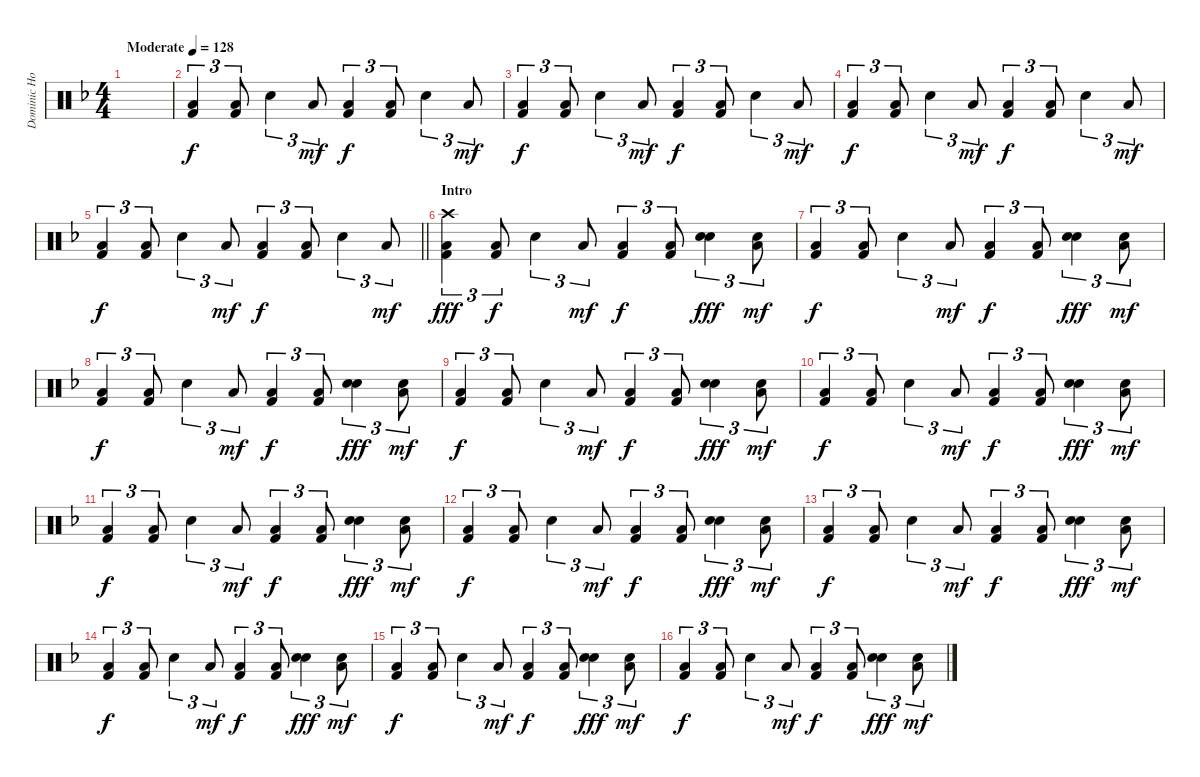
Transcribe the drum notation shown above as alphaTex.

\track ("Dominic Howard Drums" "Dominic Ho") {instrument percussion}
\staff {score}
\articulation defaults
\ts (4 4)
\tempo (128 "Moderate")
\clef neutral
\ks dminor
|
("Low Floor Tom (hit)" "Kick (hit) 2").4{tu (3 2)} ("Low Floor Tom (hit)" "Kick (hit) 2").8{tu (3 2)} "Snare (hit) 2".4{tu (3 2)} "Low Tom (hit)".8{tu (3 2) dy mf} ("Low Floor Tom (hit)" "Kick (hit) 2").4{tu (3 2) dy f} ("Low Floor Tom (hit)" "Kick (hit) 2").8{tu (3 2)} "Snare (hit) 2".4{tu (3 2)} "Low Tom (hit)".8{tu (3 2) dy mf} |
("Low Floor Tom (hit)" "Kick (hit) 2").4{tu (3 2) dy f} ("Low Floor Tom (hit)" "Kick (hit) 2").8{tu (3 2)} "Snare (hit) 2".4{tu (3 2)} "Low Tom (hit)".8{tu (3 2) dy mf} ("Low Floor Tom (hit)" "Kick (hit) 2").4{tu (3 2) dy f} ("Low Floor Tom (hit)" "Kick (hit) 2").8{tu (3 2)} "Snare (hit) 2".4{tu (3 2)} "Low Tom (hit)".8{tu (3 2) dy mf} |
("Low Floor Tom (hit)" "Kick (hit) 2").4{tu (3 2) dy f} ("Low Floor Tom (hit)" "Kick (hit) 2").8{tu (3 2)} "Snare (hit) 2".4{tu (3 2)} "Low Tom (hit)".8{tu (3 2) dy mf} ("Low Floor Tom (hit)" "Kick (hit) 2").4{tu (3 2) dy f} ("Low Floor Tom (hit)" "Kick (hit) 2").8{tu (3 2)} "Snare (hit) 2".4{tu (3 2)} "Low Tom (hit)".8{tu (3 2) dy mf} |
\barLineRight lightlight
("Low Floor Tom (hit)" "Kick (hit) 2").4{tu (3 2) dy f} ("Low Floor Tom (hit)" "Kick (hit) 2").8{tu (3 2)} "Snare (hit) 2".4{tu (3 2)} "Low Tom (hit)".8{tu (3 2) dy mf} ("Low Floor Tom (hit)" "Kick (hit) 2").4{tu (3 2) dy f} ("Low Floor Tom (hit)" "Kick (hit) 2").8{tu (3 2)} "Snare (hit) 2".4{tu (3 2)} "Low Tom (hit)".8{tu (3 2) dy mf} |
\section ("" "Intro")
("Crash high (hit)" "Low Floor Tom (hit)" "Kick (hit) 2").4{tu (3 2) dy fff} ("Low Floor Tom (hit)" "Kick (hit) 2").8{tu (3 2) dy f} "Snare (hit) 2".4{tu (3 2)} "Low Tom (hit)".8{tu (3 2) dy mf} ("Low Floor Tom (hit)" "Kick (hit) 2").4{tu (3 2) dy f} ("Low Floor Tom (hit)" "Kick (hit) 2").8{tu (3 2)} ("Hand Clap (hit)" "Snare (hit) 2").4{tu (3 2) dy fff} ("Hand Clap (hit)" "Low Tom (hit)").8{tu (3 2) dy mf} |
("Low Floor Tom (hit)" "Kick (hit) 2").4{tu (3 2) dy f} ("Low Floor Tom (hit)" "Kick (hit) 2").8{tu (3 2)} "Snare (hit) 2".4{tu (3 2)} "Low Tom (hit)".8{tu (3 2) dy mf} ("Low Floor Tom (hit)" "Kick (hit) 2").4{tu (3 2) dy f} ("Low Floor Tom (hit)" "Kick (hit) 2").8{tu (3 2)} ("Hand Clap (hit)" "Snare (hit) 2").4{tu (3 2) dy fff} ("Hand Clap (hit)" "Low Tom (hit)").8{tu (3 2) dy mf} |
("Low Floor Tom (hit)" "Kick (hit) 2").4{tu (3 2) dy f} ("Low Floor Tom (hit)" "Kick (hit) 2").8{tu (3 2)} "Snare (hit) 2".4{tu (3 2)} "Low Tom (hit)".8{tu (3 2) dy mf} ("Low Floor Tom (hit)" "Kick (hit) 2").4{tu (3 2) dy f} ("Low Floor Tom (hit)" "Kick (hit) 2").8{tu (3 2)} ("Hand Clap (hit)" "Snare (hit) 2").4{tu (3 2) dy fff} ("Hand Clap (hit)" "Low Tom (hit)").8{tu (3 2) dy mf} |
("Low Floor Tom (hit)" "Kick (hit) 2").4{tu (3 2) dy f} ("Low Floor Tom (hit)" "Kick (hit) 2").8{tu (3 2)} "Snare (hit) 2".4{tu (3 2)} "Low Tom (hit)".8{tu (3 2) dy mf} ("Low Floor Tom (hit)" "Kick (hit) 2").4{tu (3 2) dy f} ("Low Floor Tom (hit)" "Kick (hit) 2").8{tu (3 2)} ("Hand Clap (hit)" "Snare (hit) 2").4{tu (3 2) dy fff} ("Hand Clap (hit)" "Low Tom (hit)").8{tu (3 2) dy mf} |
("Low Floor Tom (hit)" "Kick (hit) 2").4{tu (3 2) dy f} ("Low Floor Tom (hit)" "Kick (hit) 2").8{tu (3 2)} "Snare (hit) 2".4{tu (3 2)} "Low Tom (hit)".8{tu (3 2) dy mf} ("Low Floor Tom (hit)" "Kick (hit) 2").4{tu (3 2) dy f} ("Low Floor Tom (hit)" "Kick (hit) 2").8{tu (3 2)} ("Hand Clap (hit)" "Snare (hit) 2").4{tu (3 2) dy fff} ("Hand Clap (hit)" "Low Tom (hit)").8{tu (3 2) dy mf} |
("Low Floor Tom (hit)" "Kick (hit) 2").4{tu (3 2) dy f} ("Low Floor Tom (hit)" "Kick (hit) 2").8{tu (3 2)} "Snare (hit) 2".4{tu (3 2)} "Low Tom (hit)".8{tu (3 2) dy mf} ("Low Floor Tom (hit)" "Kick (hit) 2").4{tu (3 2) dy f} ("Low Floor Tom (hit)" "Kick (hit) 2").8{tu (3 2)} ("Hand Clap (hit)" "Snare (hit) 2").4{tu (3 2) dy fff} ("Hand Clap (hit)" "Low Tom (hit)").8{tu (3 2) dy mf} |
("Low Floor Tom (hit)" "Kick (hit) 2").4{tu (3 2) dy f} ("Low Floor Tom (hit)" "Kick (hit) 2").8{tu (3 2)} "Snare (hit) 2".4{tu (3 2)} "Low Tom (hit)".8{tu (3 2) dy mf} ("Low Floor Tom (hit)" "Kick (hit) 2").4{tu (3 2) dy f} ("Low Floor Tom (hit)" "Kick (hit) 2").8{tu (3 2)} ("Hand Clap (hit)" "Snare (hit) 2").4{tu (3 2) dy fff} ("Hand Clap (hit)" "Low Tom (hit)").8{tu (3 2) dy mf} |
("Low Floor Tom (hit)" "Kick (hit) 2").4{tu (3 2) dy f} ("Low Floor Tom (hit)" "Kick (hit) 2").8{tu (3 2)} "Snare (hit) 2".4{tu (3 2)} "Low Tom (hit)".8{tu (3 2) dy mf} ("Low Floor Tom (hit)" "Kick (hit) 2").4{tu (3 2) dy f} ("Low Floor Tom (hit)" "Kick (hit) 2").8{tu (3 2)} ("Hand Clap (hit)" "Snare (hit) 2").4{tu (3 2) dy fff} ("Hand Clap (hit)" "Low Tom (hit)").8{tu (3 2) dy mf} |
("Low Floor Tom (hit)" "Kick (hit) 2").4{tu (3 2) dy f} ("Low Floor Tom (hit)" "Kick (hit) 2").8{tu (3 2)} "Snare (hit) 2".4{tu (3 2)} "Low Tom (hit)".8{tu (3 2) dy mf} ("Low Floor Tom (hit)" "Kick (hit) 2").4{tu (3 2) dy f} ("Low Floor Tom (hit)" "Kick (hit) 2").8{tu (3 2)} ("Hand Clap (hit)" "Snare (hit) 2").4{tu (3 2) dy fff} ("Hand Clap (hit)" "Low Tom (hit)").8{tu (3 2) dy mf} |
("Low Floor Tom (hit)" "Kick (hit) 2").4{tu (3 2) dy f} ("Low Floor Tom (hit)" "Kick (hit) 2").8{tu (3 2)} "Snare (hit) 2".4{tu (3 2)} "Low Tom (hit)".8{tu (3 2) dy mf} ("Low Floor Tom (hit)" "Kick (hit) 2").4{tu (3 2) dy f} ("Low Floor Tom (hit)" "Kick (hit) 2").8{tu (3 2)} ("Hand Clap (hit)" "Snare (hit) 2").4{tu (3 2) dy fff} ("Hand Clap (hit)" "Low Tom (hit)").8{tu (3 2) dy mf} |
("Low Floor Tom (hit)" "Kick (hit) 2").4{tu (3 2) dy f} ("Low Floor Tom (hit)" "Kick (hit) 2").8{tu (3 2)} "Snare (hit) 2".4{tu (3 2)} "Low Tom (hit)".8{tu (3 2) dy mf} ("Low Floor Tom (hit)" "Kick (hit) 2").4{tu (3 2) dy f} ("Low Floor Tom (hit)" "Kick (hit) 2").8{tu (3 2)} ("Hand Clap (hit)" "Snare (hit) 2").4{tu (3 2) dy fff} ("Hand Clap (hit)" "Low Tom (hit)").8{tu (3 2) dy mf}
